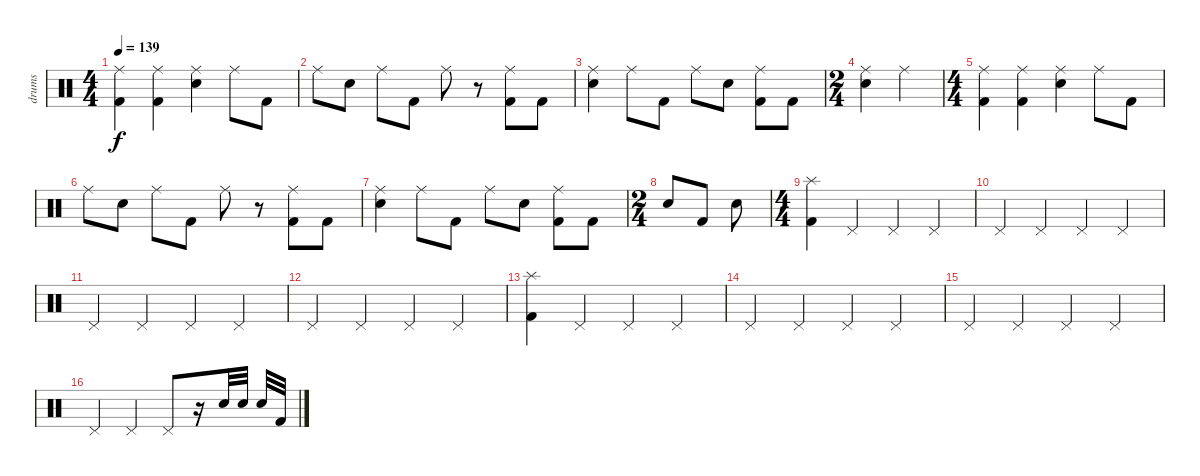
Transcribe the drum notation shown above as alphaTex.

\track ("drums" "drums") {instrument percussion}
\staff {score}
\articulation defaults
\ts (4 4)
\tempo 139
\clef neutral
\ks c
("Ride (middle)" "Kick (hit) 2").4{dy f} ("Ride (middle)" "Kick (hit) 2").4 ("Ride (middle)" "Electric Snare (hit)").4 "Ride (middle)".8 "Kick (hit) 2".8 |
"Ride (middle)".8 "Electric Snare (hit)".8 "Ride (middle)".8 "Kick (hit) 2".8 "Ride (middle)".8 r.8 ("Ride (middle)" "Kick (hit) 2").8 "Kick (hit) 2".8 |
("Ride (middle)" "Electric Snare (hit)").4 "Ride (middle)".8 "Kick (hit) 2".8 "Ride (middle)".8 "Electric Snare (hit)".8 ("Ride (middle)" "Kick (hit) 2").8 "Kick (hit) 2".8 |
\ts (2 4)
("Ride (middle)" "Electric Snare (hit)").4 "Ride (middle)".4 |
\ts (4 4)
("Ride (middle)" "Kick (hit) 2").4 ("Ride (middle)" "Kick (hit) 2").4 ("Ride (middle)" "Electric Snare (hit)").4 "Ride (middle)".8 "Kick (hit) 2".8 |
"Ride (middle)".8 "Electric Snare (hit)".8 "Ride (middle)".8 "Kick (hit) 2".8 "Ride (middle)".8 r.8 ("Ride (middle)" "Kick (hit) 2").8 "Kick (hit) 2".8 |
("Ride (middle)" "Electric Snare (hit)").4 "Ride (middle)".8 "Kick (hit) 2".8 "Ride (middle)".8 "Electric Snare (hit)".8 ("Ride (middle)" "Kick (hit) 2").8 "Kick (hit) 2".8 |
\ts (2 4)
"Electric Snare (hit)".8 "Kick (hit) 2".8 "Electric Snare (hit)".8 |
\ts (4 4)
("Splash (hit)" "Kick (hit) 2").4 "Pedal Hi-Hat (hit)".4 "Pedal Hi-Hat (hit)".4 "Pedal Hi-Hat (hit)".4 |
"Pedal Hi-Hat (hit)".4 "Pedal Hi-Hat (hit)".4 "Pedal Hi-Hat (hit)".4 "Pedal Hi-Hat (hit)".4 |
"Pedal Hi-Hat (hit)".4 "Pedal Hi-Hat (hit)".4 "Pedal Hi-Hat (hit)".4 "Pedal Hi-Hat (hit)".4 |
"Pedal Hi-Hat (hit)".4 "Pedal Hi-Hat (hit)".4 "Pedal Hi-Hat (hit)".4 "Pedal Hi-Hat (hit)".4 |
("Splash (hit)" "Kick (hit) 2").4 "Pedal Hi-Hat (hit)".4 "Pedal Hi-Hat (hit)".4 "Pedal Hi-Hat (hit)".4 |
"Pedal Hi-Hat (hit)".4 "Pedal Hi-Hat (hit)".4 "Pedal Hi-Hat (hit)".4 "Pedal Hi-Hat (hit)".4 |
"Pedal Hi-Hat (hit)".4 "Pedal Hi-Hat (hit)".4 "Pedal Hi-Hat (hit)".4 "Pedal Hi-Hat (hit)".4 |
"Pedal Hi-Hat (hit)".4 "Pedal Hi-Hat (hit)".4 "Pedal Hi-Hat (hit)".8 r.16 "Electric Snare (hit)".32 "Electric Snare (hit)".32 "Electric Snare (hit)".32 "Kick (hit) 2".32
